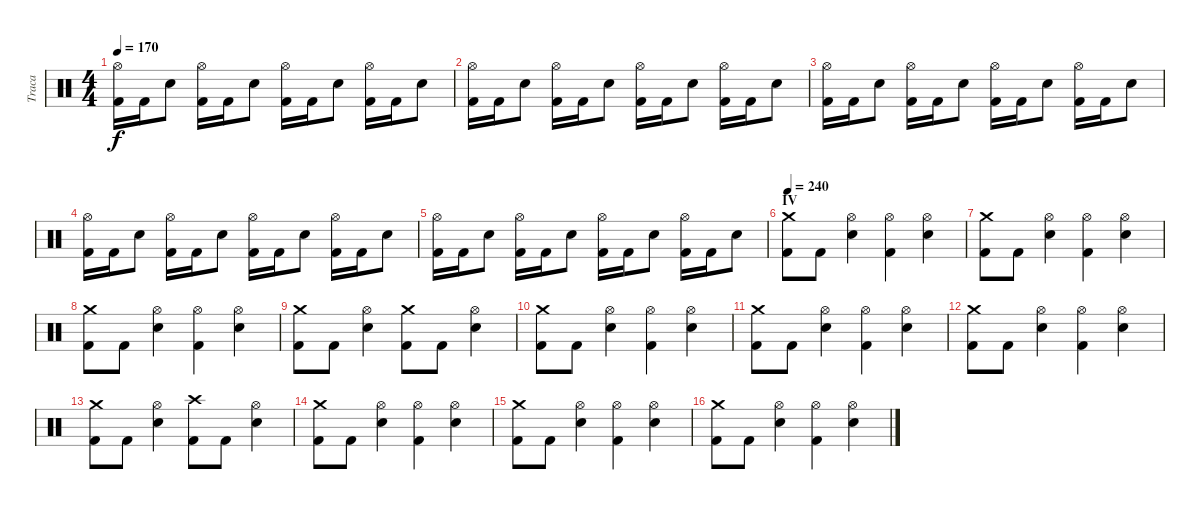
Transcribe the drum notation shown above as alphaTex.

\track ("Traca" "Traca") {instrument percussion}
\staff {score}
\articulation defaults
\ts (4 4)
\tempo 170
\clef neutral
\ks c
("Hi-Hat (open)" "Kick (hit) 2").16{dy f} "Kick (hit) 2".16 "Snare (hit) 2".8 ("Hi-Hat (open)" "Kick (hit) 2").16 "Kick (hit) 2".16 "Snare (hit) 2".8 ("Hi-Hat (open)" "Kick (hit) 2").16 "Kick (hit) 2".16 "Snare (hit) 2".8 ("Hi-Hat (open)" "Kick (hit) 2").16 "Kick (hit) 2".16 "Snare (hit) 2".8 |
("Hi-Hat (open)" "Kick (hit) 2").16 "Kick (hit) 2".16 "Snare (hit) 2".8 ("Hi-Hat (open)" "Kick (hit) 2").16 "Kick (hit) 2".16 "Snare (hit) 2".8 ("Hi-Hat (open)" "Kick (hit) 2").16 "Kick (hit) 2".16 "Snare (hit) 2".8 ("Hi-Hat (open)" "Kick (hit) 2").16 "Kick (hit) 2".16 "Snare (hit) 2".8 |
("Hi-Hat (open)" "Kick (hit) 2").16 "Kick (hit) 2".16 "Snare (hit) 2".8 ("Hi-Hat (open)" "Kick (hit) 2").16 "Kick (hit) 2".16 "Snare (hit) 2".8 ("Hi-Hat (open)" "Kick (hit) 2").16 "Kick (hit) 2".16 "Snare (hit) 2".8 ("Hi-Hat (open)" "Kick (hit) 2").16 "Kick (hit) 2".16 "Snare (hit) 2".8 |
("Hi-Hat (open)" "Kick (hit) 2").16 "Kick (hit) 2".16 "Snare (hit) 2".8 ("Hi-Hat (open)" "Kick (hit) 2").16 "Kick (hit) 2".16 "Snare (hit) 2".8 ("Hi-Hat (open)" "Kick (hit) 2").16 "Kick (hit) 2".16 "Snare (hit) 2".8 ("Hi-Hat (open)" "Kick (hit) 2").16 "Kick (hit) 2".16 "Snare (hit) 2".8 |
("Hi-Hat (open)" "Kick (hit) 2").16 "Kick (hit) 2".16 "Snare (hit) 2".8 ("Hi-Hat (open)" "Kick (hit) 2").16 "Kick (hit) 2".16 "Snare (hit) 2".8 ("Hi-Hat (open)" "Kick (hit) 2").16 "Kick (hit) 2".16 "Snare (hit) 2".8 ("Hi-Hat (open)" "Kick (hit) 2").16 "Kick (hit) 2".16 "Snare (hit) 2".8 |
\section ("" "IV")
\tempo 240
("Crash medium (hit)" "Kick (hit) 2").8 "Kick (hit) 2".8 ("Hi-Hat (open)" "Snare (hit) 2").4 ("Hi-Hat (open)" "Kick (hit) 2").4 ("Hi-Hat (open)" "Snare (hit) 2").4 |
("Crash medium (hit)" "Kick (hit) 2").8 "Kick (hit) 2".8 ("Hi-Hat (open)" "Snare (hit) 2").4 ("Hi-Hat (open)" "Kick (hit) 2").4 ("Hi-Hat (open)" "Snare (hit) 2").4 |
("Crash medium (hit)" "Kick (hit) 2").8 "Kick (hit) 2".8 ("Hi-Hat (open)" "Snare (hit) 2").4 ("Hi-Hat (open)" "Kick (hit) 2").4 ("Hi-Hat (open)" "Snare (hit) 2").4 |
("Crash medium (hit)" "Kick (hit) 2").8 "Kick (hit) 2".8 ("Hi-Hat (open)" "Snare (hit) 2").4 ("Crash medium (hit)" "Kick (hit) 2").8 "Kick (hit) 2".8 ("Hi-Hat (open)" "Snare (hit) 2").4 |
("Crash medium (hit)" "Kick (hit) 2").8 "Kick (hit) 2".8 ("Hi-Hat (open)" "Snare (hit) 2").4 ("Hi-Hat (open)" "Kick (hit) 2").4 ("Hi-Hat (open)" "Snare (hit) 2").4 |
("Crash medium (hit)" "Kick (hit) 2").8 "Kick (hit) 2".8 ("Hi-Hat (open)" "Snare (hit) 2").4 ("Hi-Hat (open)" "Kick (hit) 2").4 ("Hi-Hat (open)" "Snare (hit) 2").4 |
("Crash medium (hit)" "Kick (hit) 2").8 "Kick (hit) 2".8 ("Hi-Hat (open)" "Snare (hit) 2").4 ("Hi-Hat (open)" "Kick (hit) 2").4 ("Hi-Hat (open)" "Snare (hit) 2").4 |
("Crash medium (hit)" "Kick (hit) 2").8 "Kick (hit) 2".8 ("Hi-Hat (open)" "Snare (hit) 2").4 ("Crash high (hit)" "Kick (hit) 2").8 "Kick (hit) 2".8 ("Hi-Hat (open)" "Snare (hit) 2").4 |
("Crash medium (hit)" "Kick (hit) 2").8 "Kick (hit) 2".8 ("Hi-Hat (open)" "Snare (hit) 2").4 ("Hi-Hat (open)" "Kick (hit) 2").4 ("Hi-Hat (open)" "Snare (hit) 2").4 |
("Crash medium (hit)" "Kick (hit) 2").8 "Kick (hit) 2".8 ("Hi-Hat (open)" "Snare (hit) 2").4 ("Hi-Hat (open)" "Kick (hit) 2").4 ("Hi-Hat (open)" "Snare (hit) 2").4 |
("Crash medium (hit)" "Kick (hit) 2").8 "Kick (hit) 2".8 ("Hi-Hat (open)" "Snare (hit) 2").4 ("Hi-Hat (open)" "Kick (hit) 2").4 ("Hi-Hat (open)" "Snare (hit) 2").4
